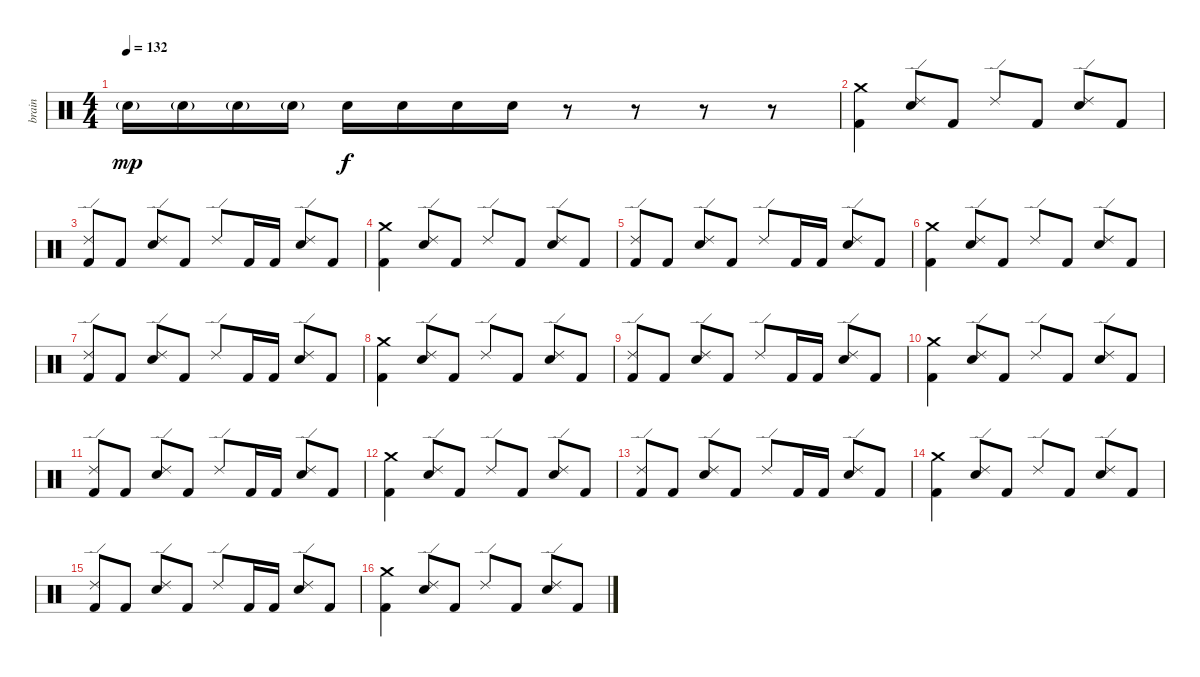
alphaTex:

\track ("brain" "brain") {instrument percussion}
\staff {score}
\articulation defaults
\ts (4 4)
\tempo 132
\clef neutral
\ks c "Electric Snare (hit)"{g}.16{dy mp} "Electric Snare (hit)"{g}.16 "Electric Snare (hit)"{g}.16 "Electric Snare (hit)"{g}.16 "Electric Snare (hit)".16{dy f} "Electric Snare (hit)".16 "Electric Snare (hit)".16 "Electric Snare (hit)".16
r.8 r.8 r.8 r.8 |
("Crash medium (hit)" "Kick (hit) 2").4 ("Ride (edge) 2" "Electric Snare (hit)").8 "Kick (hit) 2".8 "Ride (edge) 2".8 "Kick (hit) 2".8 ("Ride (edge) 2" "Electric Snare (hit)").8 "Kick (hit) 2".8 |
("Ride (edge) 2" "Kick (hit) 2").8 "Kick (hit) 2".8 ("Ride (edge) 2" "Electric Snare (hit)").8 "Kick (hit) 2".8 "Ride (edge) 2".8 "Kick (hit) 2".16 "Kick (hit) 2".16 ("Ride (edge) 2" "Electric Snare (hit)").8 "Kick (hit) 2".8 |
("Crash medium (hit)" "Kick (hit) 2").4 ("Ride (edge) 2" "Electric Snare (hit)").8 "Kick (hit) 2".8 "Ride (edge) 2".8 "Kick (hit) 2".8 ("Ride (edge) 2" "Electric Snare (hit)").8 "Kick (hit) 2".8 |
("Ride (edge) 2" "Kick (hit) 2").8 "Kick (hit) 2".8 ("Ride (edge) 2" "Electric Snare (hit)").8 "Kick (hit) 2".8 "Ride (edge) 2".8 "Kick (hit) 2".16 "Kick (hit) 2".16 ("Ride (edge) 2" "Electric Snare (hit)").8 "Kick (hit) 2".8 |
("Crash medium (hit)" "Kick (hit) 2").4 ("Ride (edge) 2" "Electric Snare (hit)").8 "Kick (hit) 2".8 "Ride (edge) 2".8 "Kick (hit) 2".8 ("Ride (edge) 2" "Electric Snare (hit)").8 "Kick (hit) 2".8 |
("Ride (edge) 2" "Kick (hit) 2").8 "Kick (hit) 2".8 ("Ride (edge) 2" "Electric Snare (hit)").8 "Kick (hit) 2".8 "Ride (edge) 2".8 "Kick (hit) 2".16 "Kick (hit) 2".16 ("Ride (edge) 2" "Electric Snare (hit)").8 "Kick (hit) 2".8 |
("Crash medium (hit)" "Kick (hit) 2").4 ("Ride (edge) 2" "Electric Snare (hit)").8 "Kick (hit) 2".8 "Ride (edge) 2".8 "Kick (hit) 2".8 ("Ride (edge) 2" "Electric Snare (hit)").8 "Kick (hit) 2".8 |
("Ride (edge) 2" "Kick (hit) 2").8 "Kick (hit) 2".8 ("Ride (edge) 2" "Electric Snare (hit)").8 "Kick (hit) 2".8 "Ride (edge) 2".8 "Kick (hit) 2".16 "Kick (hit) 2".16 ("Ride (edge) 2" "Electric Snare (hit)").8 "Kick (hit) 2".8 |
("Crash medium (hit)" "Kick (hit) 2").4 ("Ride (edge) 2" "Electric Snare (hit)").8 "Kick (hit) 2".8 "Ride (edge) 2".8 "Kick (hit) 2".8 ("Ride (edge) 2" "Electric Snare (hit)").8 "Kick (hit) 2".8 |
("Ride (edge) 2" "Kick (hit) 2").8 "Kick (hit) 2".8 ("Ride (edge) 2" "Electric Snare (hit)").8 "Kick (hit) 2".8 "Ride (edge) 2".8 "Kick (hit) 2".16 "Kick (hit) 2".16 ("Ride (edge) 2" "Electric Snare (hit)").8 "Kick (hit) 2".8 |
("Crash medium (hit)" "Kick (hit) 2").4 ("Ride (edge) 2" "Electric Snare (hit)").8 "Kick (hit) 2".8 "Ride (edge) 2".8 "Kick (hit) 2".8 ("Ride (edge) 2" "Electric Snare (hit)").8 "Kick (hit) 2".8 |
("Ride (edge) 2" "Kick (hit) 2").8 "Kick (hit) 2".8 ("Ride (edge) 2" "Electric Snare (hit)").8 "Kick (hit) 2".8 "Ride (edge) 2".8 "Kick (hit) 2".16 "Kick (hit) 2".16 ("Ride (edge) 2" "Electric Snare (hit)").8 "Kick (hit) 2".8 |
("Crash medium (hit)" "Kick (hit) 2").4 ("Ride (edge) 2" "Electric Snare (hit)").8 "Kick (hit) 2".8 "Ride (edge) 2".8 "Kick (hit) 2".8 ("Ride (edge) 2" "Electric Snare (hit)").8 "Kick (hit) 2".8 |
("Ride (edge) 2" "Kick (hit) 2").8 "Kick (hit) 2".8 ("Ride (edge) 2" "Electric Snare (hit)").8 "Kick (hit) 2".8 "Ride (edge) 2".8 "Kick (hit) 2".16 "Kick (hit) 2".16 ("Ride (edge) 2" "Electric Snare (hit)").8 "Kick (hit) 2".8 |
("Crash medium (hit)" "Kick (hit) 2").4 ("Ride (edge) 2" "Electric Snare (hit)").8 "Kick (hit) 2".8 "Ride (edge) 2".8 "Kick (hit) 2".8 ("Ride (edge) 2" "Electric Snare (hit)").8 "Kick (hit) 2".8
